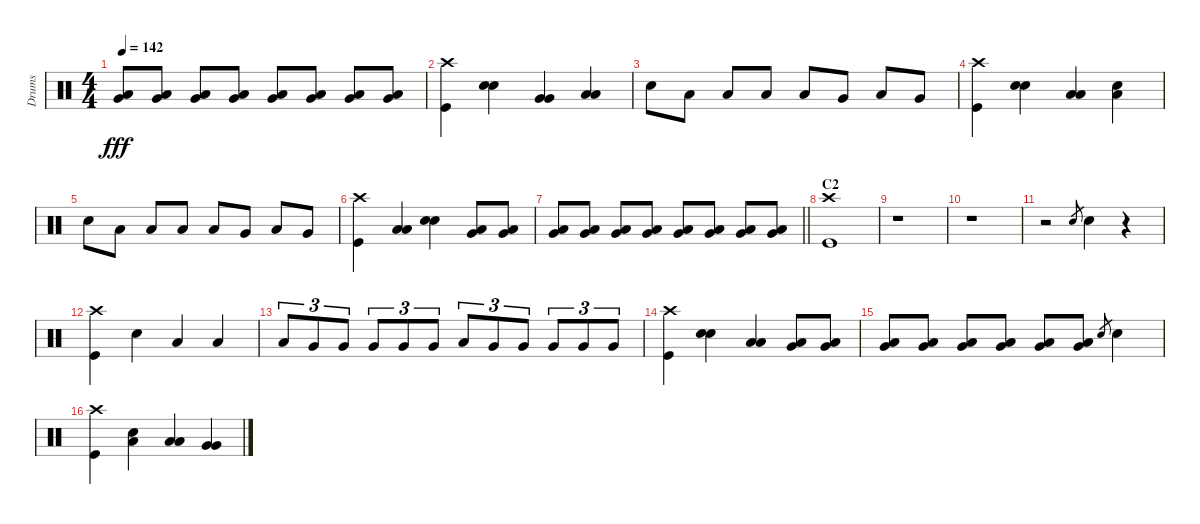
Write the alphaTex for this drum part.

\track ("Drums" "Drums") {instrument percussion}
\staff {score}
\articulation defaults
\ts (4 4)
\tempo 142
\clef neutral
\ks c
("Very Low Tom (hit)" "Low Floor Tom (hit)").8{dy fff} ("Very Low Tom (hit)" "Low Floor Tom (hit)").8 ("Very Low Tom (hit)" "Low Floor Tom (hit)").8 ("Very Low Tom (hit)" "Low Floor Tom (hit)").8 ("Very Low Tom (hit)" "Low Floor Tom (hit)").8 ("Very Low Tom (hit)" "Low Floor Tom (hit)").8 ("Very Low Tom (hit)" "Low Floor Tom (hit)").8 ("Very Low Tom (hit)" "Low Floor Tom (hit)").8 |
("Crash high (hit)" "Kick (hit)").4 ("Snare (hit) 2" "Snare (hit) 2").4 ("Very Low Tom (hit)" "Very Low Tom (hit)").4 ("Low Floor Tom (hit)" "Low Floor Tom (hit)").4 |
"Snare (hit) 2".8 "Low Tom (hit)".8 "Low Tom (hit)".8 "Low Tom (hit)".8 "Low Floor Tom (hit)".8 "Very Low Tom (hit)".8 "Low Tom (hit)".8 "Very Low Tom (hit)".8 |
("Crash high (hit)" "Kick (hit)").4 ("Snare (hit) 2" "Snare (hit) 2").4 ("Low Floor Tom (hit)" "Low Floor Tom (hit)").4 ("Snare (hit) 2" "Low Floor Tom (hit)").4 |
"Snare (hit) 2".8 "Low Tom (hit)".8 "Low Tom (hit)".8 "Low Tom (hit)".8 "Low Floor Tom (hit)".8 "Very Low Tom (hit)".8 "Low Tom (hit)".8 "Very Low Tom (hit)".8 |
("Crash high (hit)" "Kick (hit)").4 ("Low Floor Tom (hit)" "Low Floor Tom (hit)").4 ("Snare (hit) 2" "Snare (hit) 2").4 ("Very Low Tom (hit)" "Low Floor Tom (hit)").8 ("Very Low Tom (hit)" "Low Floor Tom (hit)").8 |
\barLineRight lightlight
("Very Low Tom (hit)" "Low Floor Tom (hit)").8 ("Very Low Tom (hit)" "Low Floor Tom (hit)").8 ("Very Low Tom (hit)" "Low Floor Tom (hit)").8 ("Very Low Tom (hit)" "Low Floor Tom (hit)").8 ("Very Low Tom (hit)" "Low Floor Tom (hit)").8 ("Very Low Tom (hit)" "Low Floor Tom (hit)").8 ("Very Low Tom (hit)" "Low Floor Tom (hit)").8 ("Very Low Tom (hit)" "Low Floor Tom (hit)").8 |
\section ("" "C2")
("Crash high (hit)" "Kick (hit)").1 |
r.1 |
r.1 |
r.2 "Snare (hit) 2".8{gr} "Snare (hit) 2".4 r.4 |
("Crash high (hit)" "Kick (hit)").4 "Snare (hit) 2".4 "Low Tom (hit)".4 "Low Floor Tom (hit)".4 |
"Low Floor Tom (hit)".8{tu (3 2)} "Very Low Tom (hit)".8{tu (3 2)} "Very Low Tom (hit)".8{tu (3 2)} "Very Low Tom (hit)".8{tu (3 2)} "Very Low Tom (hit)".8{tu (3 2)} "Very Low Tom (hit)".8{tu (3 2)} "Low Floor Tom (hit)".8{tu (3 2)} "Very Low Tom (hit)".8{tu (3 2)} "Very Low Tom (hit)".8{tu (3 2)} "Very Low Tom (hit)".8{tu (3 2)} "Very Low Tom (hit)".8{tu (3 2)} "Very Low Tom (hit)".8{tu (3 2)} |
("Crash high (hit)" "Kick (hit)").4 ("Snare (hit) 2" "Snare (hit) 2").4 ("Low Floor Tom (hit)" "Low Floor Tom (hit)").4 ("Very Low Tom (hit)" "Low Floor Tom (hit)").8 ("Very Low Tom (hit)" "Low Floor Tom (hit)").8 |
("Very Low Tom (hit)" "Low Floor Tom (hit)").8 ("Very Low Tom (hit)" "Low Floor Tom (hit)").8 ("Very Low Tom (hit)" "Low Floor Tom (hit)").8 ("Very Low Tom (hit)" "Low Floor Tom (hit)").8 ("Very Low Tom (hit)" "Low Floor Tom (hit)").8 ("Very Low Tom (hit)" "Low Floor Tom (hit)").8 "Snare (hit) 2".8{gr} "Snare (hit) 2".4 |
("Crash high (hit)" "Kick (hit)").4 ("Snare (hit) 2" "Low Tom (hit)").4 ("Low Tom (hit)" "Low Tom (hit)").4 ("Very Low Tom (hit)" "Very Low Tom (hit)").4
